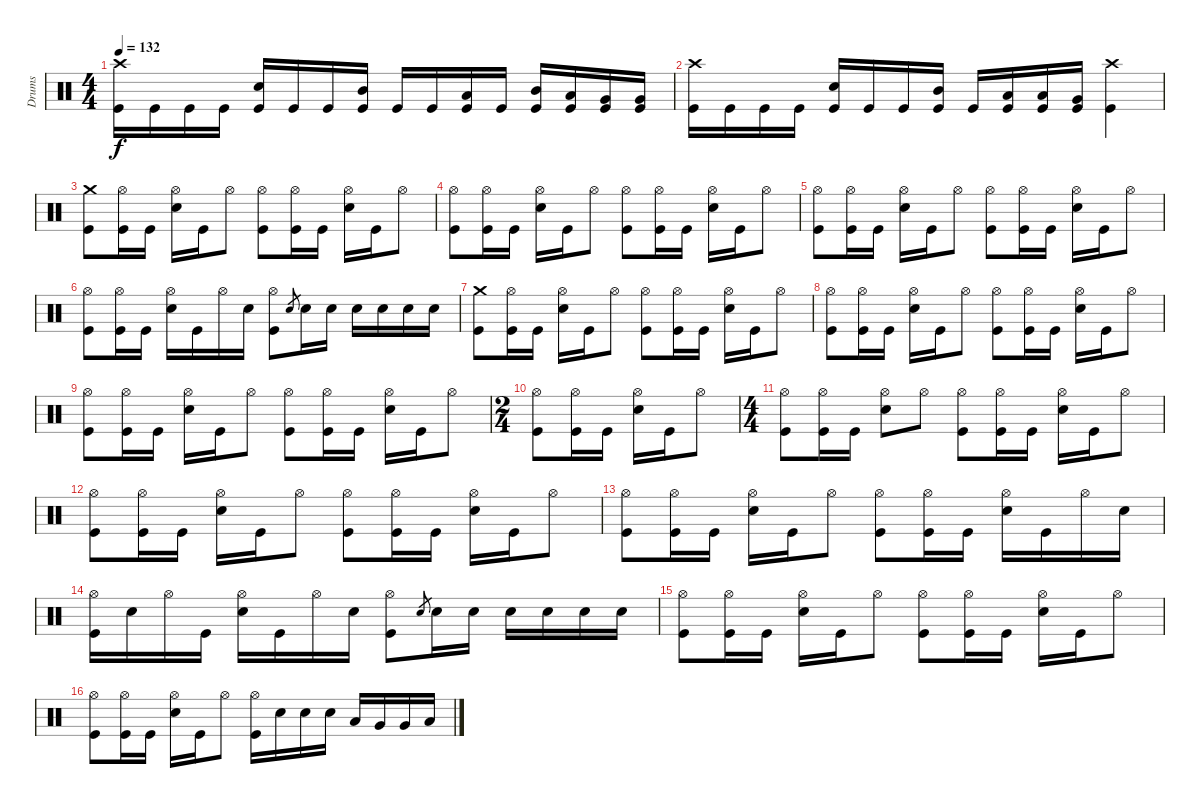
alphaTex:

\track ("Drums" "Drums") {instrument percussion}
\staff {score}
\articulation defaults
\ts (4 4)
\tempo 132
\clef neutral
\ks c
("Crash high (hit)" "Kick (hit)").16{dy f} "Kick (hit)".16 "Kick (hit)".16 "Kick (hit)".16 ("Snare (hit) 2" "Kick (hit)").16 "Kick (hit)".16 "Kick (hit)".16 ("Mid Tom (hit)" "Kick (hit)").16 "Kick (hit)".16 "Kick (hit)".16 ("Low Tom (hit)" "Kick (hit)").16 "Kick (hit)".16 ("Mid Tom (hit)" "Kick (hit)").16 ("Low Tom (hit)" "Kick (hit)").16 ("Very Low Tom (hit)" "Kick (hit)").16 ("Very Low Tom (hit)" "Kick (hit)").16 |
("Crash high (hit)" "Kick (hit)").16 "Kick (hit)".16 "Kick (hit)".16 "Kick (hit)".16 ("Snare (hit) 2" "Kick (hit)").16 "Kick (hit)".16 "Kick (hit)".16 ("Mid Tom (hit)" "Kick (hit)").16 "Kick (hit)".16 ("Low Tom (hit)" "Kick (hit)").16 ("Low Tom (hit)" "Kick (hit)").16 ("Very Low Tom (hit)" "Kick (hit)").16 ("Crash high (hit)" "Kick (hit)").4 |
("Crash medium (hit)" "Kick (hit)").8 ("Hi-Hat (open)" "Kick (hit)").16 "Kick (hit)".16 ("Hi-Hat (open)" "Snare (hit) 2").16 "Kick (hit)".16 "Hi-Hat (open)".8 ("Hi-Hat (open)" "Kick (hit)").8 ("Hi-Hat (open)" "Kick (hit)").16 "Kick (hit)".16 ("Hi-Hat (open)" "Snare (hit) 2").16 "Kick (hit)".16 "Hi-Hat (open)".8 |
("Hi-Hat (open)" "Kick (hit)").8 ("Hi-Hat (open)" "Kick (hit)").16 "Kick (hit)".16 ("Hi-Hat (open)" "Snare (hit) 2").16 "Kick (hit)".16 "Hi-Hat (open)".8 ("Hi-Hat (open)" "Kick (hit)").8 ("Hi-Hat (open)" "Kick (hit)").16 "Kick (hit)".16 ("Hi-Hat (open)" "Snare (hit) 2").16 "Kick (hit)".16 "Hi-Hat (open)".8 |
("Hi-Hat (open)" "Kick (hit)").8 ("Hi-Hat (open)" "Kick (hit)").16 "Kick (hit)".16 ("Hi-Hat (open)" "Snare (hit) 2").16 "Kick (hit)".16 "Hi-Hat (open)".8 ("Hi-Hat (open)" "Kick (hit)").8 ("Hi-Hat (open)" "Kick (hit)").16 "Kick (hit)".16 ("Hi-Hat (open)" "Snare (hit) 2").16 "Kick (hit)".16 "Hi-Hat (open)".8 |
("Hi-Hat (open)" "Kick (hit)").8 ("Hi-Hat (open)" "Kick (hit)").16 "Kick (hit)".16 ("Hi-Hat (open)" "Snare (hit) 2").16 "Kick (hit)".16 "Hi-Hat (open)".16 "Snare (hit) 2".16 ("Hi-Hat (open)" "Kick (hit)").8 "Snare (hit) 2".8{gr} "Snare (hit) 2".16 "Snare (hit) 2".16 "Snare (hit) 2".16 "Snare (hit) 2".16 "Snare (hit) 2".16 "Snare (hit) 2".16 |
("Crash medium (hit)" "Kick (hit)").8 ("Hi-Hat (open)" "Kick (hit)").16 "Kick (hit)".16 ("Hi-Hat (open)" "Snare (hit) 2").16 "Kick (hit)".16 "Hi-Hat (open)".8 ("Hi-Hat (open)" "Kick (hit)").8 ("Hi-Hat (open)" "Kick (hit)").16 "Kick (hit)".16 ("Hi-Hat (open)" "Snare (hit) 2").16 "Kick (hit)".16 "Hi-Hat (open)".8 |
("Hi-Hat (open)" "Kick (hit)").8 ("Hi-Hat (open)" "Kick (hit)").16 "Kick (hit)".16 ("Hi-Hat (open)" "Snare (hit) 2").16 "Kick (hit)".16 "Hi-Hat (open)".8 ("Hi-Hat (open)" "Kick (hit)").8 ("Hi-Hat (open)" "Kick (hit)").16 "Kick (hit)".16 ("Hi-Hat (open)" "Snare (hit) 2").16 "Kick (hit)".16 "Hi-Hat (open)".8 |
("Hi-Hat (open)" "Kick (hit)").8 ("Hi-Hat (open)" "Kick (hit)").16 "Kick (hit)".16 ("Hi-Hat (open)" "Snare (hit) 2").16 "Kick (hit)".16 "Hi-Hat (open)".8 ("Hi-Hat (open)" "Kick (hit)").8 ("Hi-Hat (open)" "Kick (hit)").16 "Kick (hit)".16 ("Hi-Hat (open)" "Snare (hit) 2").16 "Kick (hit)".16 "Hi-Hat (open)".8 |
\ts (2 4)
("Hi-Hat (open)" "Kick (hit)").8 ("Hi-Hat (open)" "Kick (hit)").16 "Kick (hit)".16 ("Hi-Hat (open)" "Snare (hit) 2").16 "Kick (hit)".16 "Hi-Hat (open)".8 |
\ts (4 4)
("Hi-Hat (open)" "Kick (hit)").8 ("Hi-Hat (open)" "Kick (hit)").16 "Kick (hit)".16 ("Hi-Hat (open)" "Snare (hit) 2").8 "Hi-Hat (open)".8 ("Hi-Hat (open)" "Kick (hit)").8 ("Hi-Hat (open)" "Kick (hit)").16 "Kick (hit)".16 ("Hi-Hat (open)" "Snare (hit) 2").16 "Kick (hit)".16 "Hi-Hat (open)".8 |
("Hi-Hat (open)" "Kick (hit)").8 ("Hi-Hat (open)" "Kick (hit)").16 "Kick (hit)".16 ("Hi-Hat (open)" "Snare (hit) 2").16 "Kick (hit)".16 "Hi-Hat (open)".8 ("Hi-Hat (open)" "Kick (hit)").8 ("Hi-Hat (open)" "Kick (hit)").16 "Kick (hit)".16 ("Hi-Hat (open)" "Snare (hit) 2").16 "Kick (hit)".16 "Hi-Hat (open)".8 |
("Hi-Hat (open)" "Kick (hit)").8 ("Hi-Hat (open)" "Kick (hit)").16 "Kick (hit)".16 ("Hi-Hat (open)" "Snare (hit) 2").16 "Kick (hit)".16 "Hi-Hat (open)".8 ("Hi-Hat (open)" "Kick (hit)").8 ("Hi-Hat (open)" "Kick (hit)").16 "Kick (hit)".16 ("Hi-Hat (open)" "Snare (hit) 2").16 "Kick (hit)".16 "Hi-Hat (open)".16 "Snare (hit) 2".16 |
("Hi-Hat (open)" "Kick (hit)").16 "Snare (hit) 2".16 "Hi-Hat (open)".16 "Kick (hit)".16 ("Hi-Hat (open)" "Snare (hit) 2").16 "Kick (hit)".16 "Hi-Hat (open)".16 "Snare (hit) 2".16 ("Hi-Hat (open)" "Kick (hit)").8 "Snare (hit) 2".8{gr} "Snare (hit) 2".16 "Snare (hit) 2".16 "Snare (hit) 2".16 "Snare (hit) 2".16 "Snare (hit) 2".16 "Snare (hit) 2".16 |
("Hi-Hat (open)" "Kick (hit)").8 ("Hi-Hat (open)" "Kick (hit)").16 "Kick (hit)".16 ("Hi-Hat (open)" "Snare (hit) 2").16 "Kick (hit)".16 "Hi-Hat (open)".8 ("Hi-Hat (open)" "Kick (hit)").8 ("Hi-Hat (open)" "Kick (hit)").16 "Kick (hit)".16 ("Hi-Hat (open)" "Snare (hit) 2").16 "Kick (hit)".16 "Hi-Hat (open)".8 |
("Hi-Hat (open)" "Kick (hit)").8 ("Hi-Hat (open)" "Kick (hit)").16 "Kick (hit)".16 ("Hi-Hat (open)" "Snare (hit) 2").16 "Kick (hit)".16 "Hi-Hat (open)".8 ("Hi-Hat (open)" "Kick (hit)").16 "Snare (hit) 2".16 "Snare (hit) 2".16 "Snare (hit) 2".16 "Low Tom (hit)".16 "Very Low Tom (hit)".16 "Very Low Tom (hit)".16 "Low Floor Tom (hit)".16
